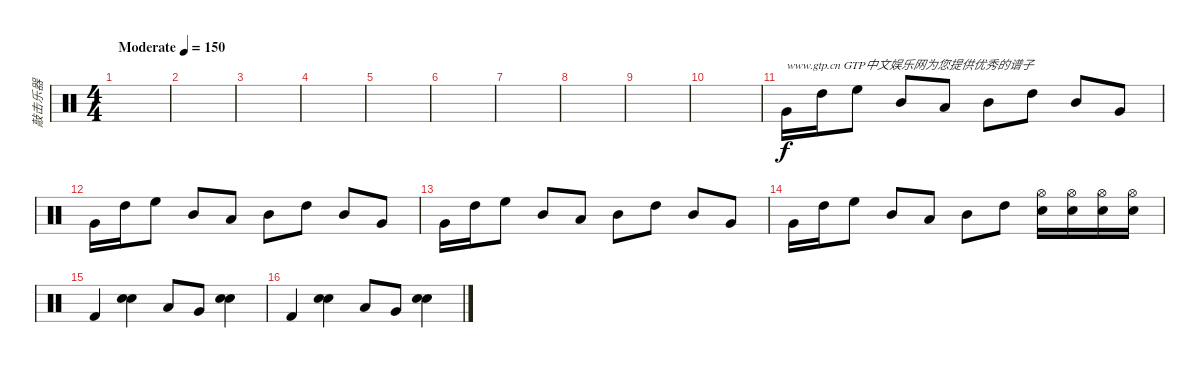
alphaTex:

\track ("敲击乐器" "敲击乐器") {instrument percussion}
\staff {score}
\articulation defaults
\ts (4 4)
\tempo (150 "Moderate")
\clef neutral
\ks c
|
|
|
|
|
|
|
|
|
|
"Very Low Tom (hit)".16{txt "www.gtp.cn GTP中文娱乐网为您提供优秀的谱子"} "High Tom (hit)".16 "High Floor Tom (hit)".8 "Mid Tom (hit)".8 "Low Tom (hit)".8 "Mid Tom (hit)".8 "High Tom (hit)".8 "Mid Tom (hit)".8 "Very Low Tom (hit)".8 |
"Very Low Tom (hit)".16 "High Tom (hit)".16 "High Floor Tom (hit)".8 "Mid Tom (hit)".8 "Low Tom (hit)".8 "Mid Tom (hit)".8 "High Tom (hit)".8 "Mid Tom (hit)".8 "Very Low Tom (hit)".8 |
"Very Low Tom (hit)".16 "High Tom (hit)".16 "High Floor Tom (hit)".8 "Mid Tom (hit)".8 "Low Tom (hit)".8 "Mid Tom (hit)".8 "High Tom (hit)".8 "Mid Tom (hit)".8 "Very Low Tom (hit)".8 |
"Very Low Tom (hit)".16 "High Tom (hit)".16 "High Floor Tom (hit)".8 "Mid Tom (hit)".8 "Low Tom (hit)".8 "Mid Tom (hit)".8 "High Tom (hit)".8 ("Hi-Hat (open)" "Snare (hit) 2").16 ("Hi-Hat (open)" "Snare (hit) 2").16 ("Hi-Hat (open)" "Snare (hit) 2").16 ("Hi-Hat (open)" "Snare (hit) 2").16 |
"Kick (hit) 2".4 ("Electric Snare (hit)" "Snare (hit) 2").4 "Low Tom (hit)".8 "Very Low Tom (hit)".8 ("Electric Snare (hit)" "Snare (hit) 2").4 |
"Kick (hit) 2".4 ("Electric Snare (hit)" "Snare (hit) 2").4 "Low Tom (hit)".8 "Very Low Tom (hit)".8 ("Electric Snare (hit)" "Snare (hit) 2").4
